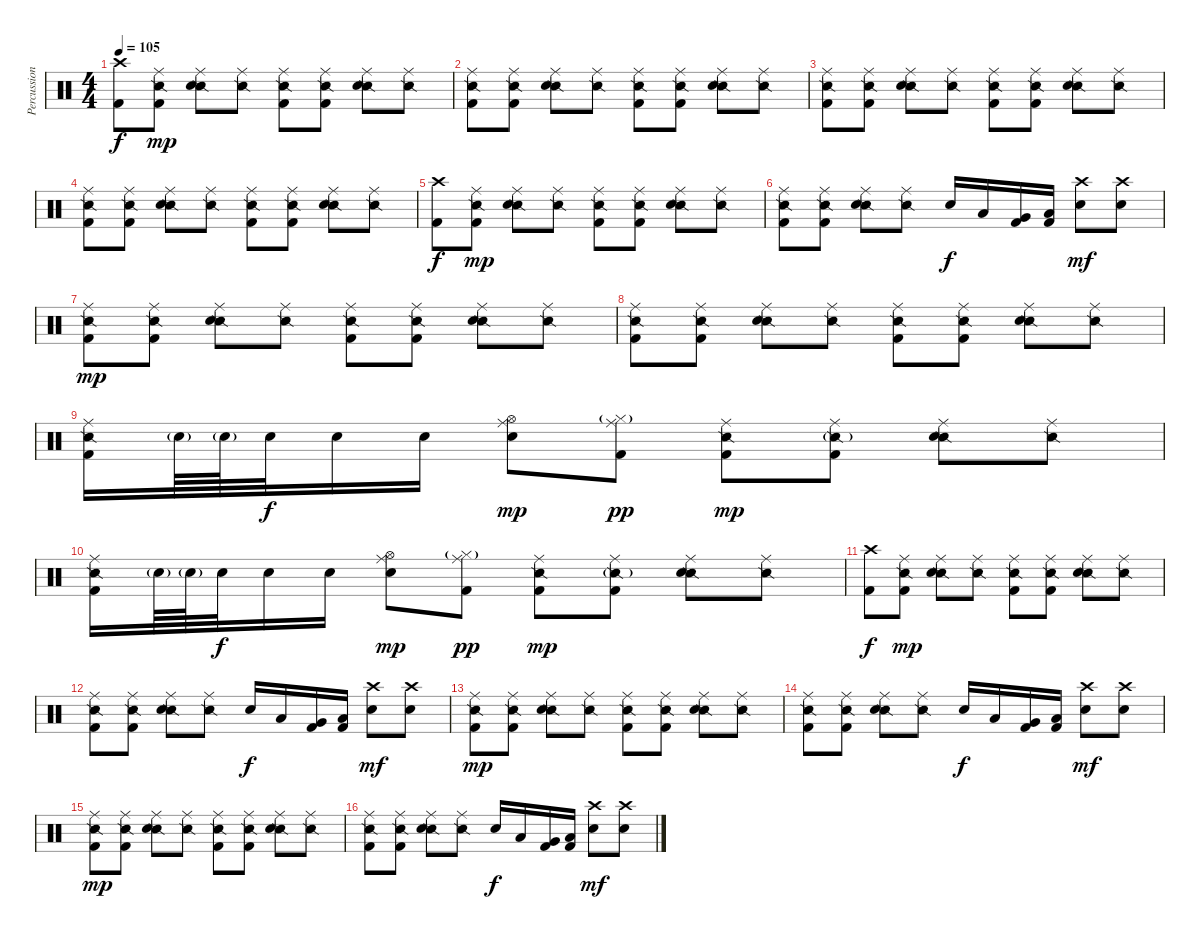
\track ("Percussioni" "Percussion") {instrument percussion}
\staff {score}
\articulation defaults
\ts (4 4)
\tempo 105
\clef neutral
\ks c
("Crash high (hit)" "Kick (hit) 2").8{dy f} ("Snare (side stick) 2" "Ride (middle)" "Kick (hit) 2").8{dy mp} ("Snare (side stick) 2" "Ride (middle)" "Snare (hit) 2").8 ("Snare (side stick) 2" "Ride (middle)").8 ("Snare (side stick) 2" "Ride (middle)" "Kick (hit) 2").8 ("Snare (side stick) 2" "Ride (middle)" "Kick (hit) 2").8 ("Snare (side stick) 2" "Ride (middle)" "Snare (hit) 2").8 ("Snare (side stick) 2" "Ride (middle)").8 |
("Snare (side stick) 2" "Ride (middle)" "Kick (hit) 2").8 ("Snare (side stick) 2" "Ride (middle)" "Kick (hit) 2").8 ("Snare (side stick) 2" "Ride (middle)" "Snare (hit) 2").8 ("Snare (side stick) 2" "Ride (middle)").8 ("Snare (side stick) 2" "Ride (middle)" "Kick (hit) 2").8 ("Snare (side stick) 2" "Ride (middle)" "Kick (hit) 2").8 ("Snare (side stick) 2" "Ride (middle)" "Snare (hit) 2").8 ("Snare (side stick) 2" "Ride (middle)").8 |
("Snare (side stick) 2" "Ride (middle)" "Kick (hit) 2").8 ("Snare (side stick) 2" "Ride (middle)" "Kick (hit) 2").8 ("Snare (side stick) 2" "Ride (middle)" "Snare (hit) 2").8 ("Snare (side stick) 2" "Ride (middle)").8 ("Snare (side stick) 2" "Ride (middle)" "Kick (hit) 2").8 ("Snare (side stick) 2" "Ride (middle)" "Kick (hit) 2").8 ("Snare (side stick) 2" "Ride (middle)" "Snare (hit) 2").8 ("Snare (side stick) 2" "Ride (middle)").8 |
("Snare (side stick) 2" "Ride (middle)" "Kick (hit) 2").8 ("Snare (side stick) 2" "Ride (middle)" "Kick (hit) 2").8 ("Snare (side stick) 2" "Ride (middle)" "Snare (hit) 2").8 ("Snare (side stick) 2" "Ride (middle)").8 ("Snare (side stick) 2" "Ride (middle)" "Kick (hit) 2").8 ("Snare (side stick) 2" "Ride (middle)" "Kick (hit) 2").8 ("Snare (side stick) 2" "Ride (middle)" "Snare (hit) 2").8 ("Snare (side stick) 2" "Ride (middle)").8 |
("Crash high (hit)" "Kick (hit) 2").8{dy f} ("Snare (side stick) 2" "Ride (middle)" "Kick (hit) 2").8{dy mp} ("Snare (side stick) 2" "Ride (middle)" "Snare (hit) 2").8 ("Snare (side stick) 2" "Ride (middle)").8 ("Snare (side stick) 2" "Ride (middle)" "Kick (hit) 2").8 ("Snare (side stick) 2" "Ride (middle)" "Kick (hit) 2").8 ("Snare (side stick) 2" "Ride (middle)" "Snare (hit) 2").8 ("Snare (side stick) 2" "Ride (middle)").8 |
("Snare (side stick) 2" "Ride (middle)" "Kick (hit) 2").8 ("Snare (side stick) 2" "Ride (middle)" "Kick (hit) 2").8 ("Snare (side stick) 2" "Ride (middle)" "Snare (hit) 2").8 ("Snare (side stick) 2" "Ride (middle)").8 "Snare (hit) 2".16{dy f} "Low Tom (hit)".16 ("Very Low Tom (hit)" "Kick (hit) 2").16 ("Low Floor Tom (hit)" "Kick (hit) 2").16 ("Crash high (hit)" "Snare (hit) 2").8{dy mf} ("Crash high (hit)" "Snare (hit) 2").8 |
("Snare (side stick) 2" "Ride (middle)" "Kick (hit) 2").8{dy mp} ("Snare (side stick) 2" "Ride (middle)" "Kick (hit) 2").8 ("Snare (side stick) 2" "Ride (middle)" "Snare (hit) 2").8 ("Snare (side stick) 2" "Ride (middle)").8 ("Snare (side stick) 2" "Ride (middle)" "Kick (hit) 2").8 ("Snare (side stick) 2" "Ride (middle)" "Kick (hit) 2").8 ("Snare (side stick) 2" "Ride (middle)" "Snare (hit) 2").8 ("Snare (side stick) 2" "Ride (middle)").8 |
("Snare (side stick) 2" "Ride (middle)" "Kick (hit) 2").8 ("Snare (side stick) 2" "Ride (middle)" "Kick (hit) 2").8 ("Snare (side stick) 2" "Ride (middle)" "Snare (hit) 2").8 ("Snare (side stick) 2" "Ride (middle)").8 ("Snare (side stick) 2" "Ride (middle)" "Kick (hit) 2").8 ("Snare (side stick) 2" "Ride (middle)" "Kick (hit) 2").8 ("Snare (side stick) 2" "Ride (middle)" "Snare (hit) 2").8 ("Snare (side stick) 2" "Ride (middle)").8 |
("Snare (side stick) 2" "Ride (middle)" "Kick (hit) 2").16 "Snare (hit) 2"{g}.64 "Snare (hit) 2"{g}.64 "Snare (hit) 2".32{dy f} "Snare (hit) 2".16 "Snare (hit) 2".16 ("Hi-Hat (open)" "Ride (middle)" "Snare (hit) 2").8{dy mp} ("Hi-Hat (closed)"{g} "Ride (middle)" "Kick (hit) 2").8{dy pp} ("Snare (side stick) 2" "Ride (middle)" "Kick (hit) 2").8{dy mp} ("Snare (side stick) 2"{g} "Ride (middle)" "Kick (hit) 2").8 ("Snare (side stick) 2" "Ride (middle)" "Snare (hit) 2").8 ("Snare (side stick) 2" "Ride (middle)").8 |
("Snare (side stick) 2" "Ride (middle)" "Kick (hit) 2").16 "Snare (hit) 2"{g}.64 "Snare (hit) 2"{g}.64 "Snare (hit) 2".32{dy f} "Snare (hit) 2".16 "Snare (hit) 2".16 ("Hi-Hat (open)" "Ride (middle)" "Snare (hit) 2").8{dy mp} ("Hi-Hat (closed)"{g} "Ride (middle)" "Kick (hit) 2").8{dy pp} ("Snare (side stick) 2" "Ride (middle)" "Kick (hit) 2").8{dy mp} ("Snare (side stick) 2"{g} "Ride (middle)" "Kick (hit) 2").8 ("Snare (side stick) 2" "Ride (middle)" "Snare (hit) 2").8 ("Snare (side stick) 2" "Ride (middle)").8 |
("Crash high (hit)" "Kick (hit) 2").8{dy f} ("Snare (side stick) 2" "Ride (middle)" "Kick (hit) 2").8{dy mp} ("Snare (side stick) 2" "Ride (middle)" "Snare (hit) 2").8 ("Snare (side stick) 2" "Ride (middle)").8 ("Snare (side stick) 2" "Ride (middle)" "Kick (hit) 2").8 ("Snare (side stick) 2" "Ride (middle)" "Kick (hit) 2").8 ("Snare (side stick) 2" "Ride (middle)" "Snare (hit) 2").8 ("Snare (side stick) 2" "Ride (middle)").8 |
("Snare (side stick) 2" "Ride (middle)" "Kick (hit) 2").8 ("Snare (side stick) 2" "Ride (middle)" "Kick (hit) 2").8 ("Snare (side stick) 2" "Ride (middle)" "Snare (hit) 2").8 ("Snare (side stick) 2" "Ride (middle)").8 "Snare (hit) 2".16{dy f} "Low Tom (hit)".16 ("Very Low Tom (hit)" "Kick (hit) 2").16 ("Low Floor Tom (hit)" "Kick (hit) 2").16 ("Crash high (hit)" "Snare (hit) 2").8{dy mf} ("Crash high (hit)" "Snare (hit) 2").8 |
("Snare (side stick) 2" "Ride (middle)" "Kick (hit) 2").8{dy mp} ("Snare (side stick) 2" "Ride (middle)" "Kick (hit) 2").8 ("Snare (side stick) 2" "Ride (middle)" "Snare (hit) 2").8 ("Snare (side stick) 2" "Ride (middle)").8 ("Snare (side stick) 2" "Ride (middle)" "Kick (hit) 2").8 ("Snare (side stick) 2" "Ride (middle)" "Kick (hit) 2").8 ("Snare (side stick) 2" "Ride (middle)" "Snare (hit) 2").8 ("Snare (side stick) 2" "Ride (middle)").8 |
("Snare (side stick) 2" "Ride (middle)" "Kick (hit) 2").8 ("Snare (side stick) 2" "Ride (middle)" "Kick (hit) 2").8 ("Snare (side stick) 2" "Ride (middle)" "Snare (hit) 2").8 ("Snare (side stick) 2" "Ride (middle)").8 "Snare (hit) 2".16{dy f} "Low Tom (hit)".16 ("Very Low Tom (hit)" "Kick (hit) 2").16 ("Low Floor Tom (hit)" "Kick (hit) 2").16 ("Crash high (hit)" "Snare (hit) 2").8{dy mf} ("Crash high (hit)" "Snare (hit) 2").8 |
("Snare (side stick) 2" "Ride (middle)" "Kick (hit) 2").8{dy mp} ("Snare (side stick) 2" "Ride (middle)" "Kick (hit) 2").8 ("Snare (side stick) 2" "Ride (middle)" "Snare (hit) 2").8 ("Snare (side stick) 2" "Ride (middle)").8 ("Snare (side stick) 2" "Ride (middle)" "Kick (hit) 2").8 ("Snare (side stick) 2" "Ride (middle)" "Kick (hit) 2").8 ("Snare (side stick) 2" "Ride (middle)" "Snare (hit) 2").8 ("Snare (side stick) 2" "Ride (middle)").8 |
("Snare (side stick) 2" "Ride (middle)" "Kick (hit) 2").8 ("Snare (side stick) 2" "Ride (middle)" "Kick (hit) 2").8 ("Snare (side stick) 2" "Ride (middle)" "Snare (hit) 2").8 ("Snare (side stick) 2" "Ride (middle)").8 "Snare (hit) 2".16{dy f} "Low Tom (hit)".16 ("Very Low Tom (hit)" "Kick (hit) 2").16 ("Low Floor Tom (hit)" "Kick (hit) 2").16 ("Crash high (hit)" "Snare (hit) 2").8{dy mf} ("Crash high (hit)" "Snare (hit) 2").8
